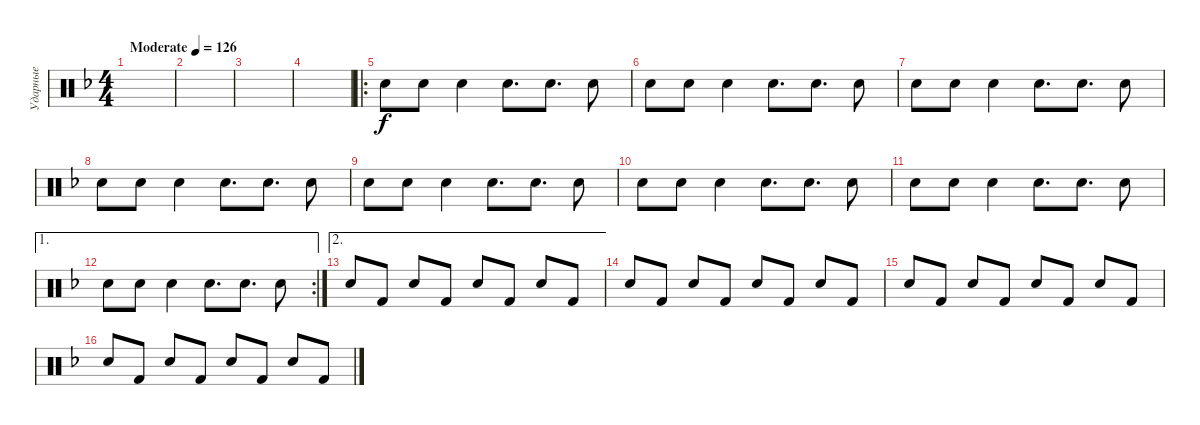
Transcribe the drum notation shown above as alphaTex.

\track ("Ударные" "Ударные") {instrument percussion}
\staff {score}
\articulation defaults
\ts (4 4)
\tempo (126 "Moderate")
\clef neutral
\ks dminor
|
|
|
|
\ro "Electric Snare (hit)".8 "Electric Snare (hit)".8 "Electric Snare (hit)".4 "Electric Snare (hit)".8{d} "Electric Snare (hit)".8{d} "Electric Snare (hit)".8
|
"Electric Snare (hit)".8 "Electric Snare (hit)".8 "Electric Snare (hit)".4 "Electric Snare (hit)".8{d} "Electric Snare (hit)".8{d} "Electric Snare (hit)".8 |
"Electric Snare (hit)".8 "Electric Snare (hit)".8 "Electric Snare (hit)".4 "Electric Snare (hit)".8{d} "Electric Snare (hit)".8{d} "Electric Snare (hit)".8 |
"Electric Snare (hit)".8 "Electric Snare (hit)".8 "Electric Snare (hit)".4 "Electric Snare (hit)".8{d} "Electric Snare (hit)".8{d} "Electric Snare (hit)".8 |
"Electric Snare (hit)".8 "Electric Snare (hit)".8 "Electric Snare (hit)".4 "Electric Snare (hit)".8{d} "Electric Snare (hit)".8{d} "Electric Snare (hit)".8 |
"Electric Snare (hit)".8 "Electric Snare (hit)".8 "Electric Snare (hit)".4 "Electric Snare (hit)".8{d} "Electric Snare (hit)".8{d} "Electric Snare (hit)".8 |
"Electric Snare (hit)".8 "Electric Snare (hit)".8 "Electric Snare (hit)".4 "Electric Snare (hit)".8{d} "Electric Snare (hit)".8{d} "Electric Snare (hit)".8 |
\ae 1
\rc 2 "Electric Snare (hit)".8 "Electric Snare (hit)".8 "Electric Snare (hit)".4 "Electric Snare (hit)".8{d} "Electric Snare (hit)".8{d} "Electric Snare (hit)".8
|
\ae 2 "Electric Snare (hit)".8 "Kick (hit) 2".8 "Electric Snare (hit)".8 "Kick (hit) 2".8 "Electric Snare (hit)".8 "Kick (hit) 2".8 "Electric Snare (hit)".8 "Kick (hit) 2".8
|
"Electric Snare (hit)".8 "Kick (hit) 2".8 "Electric Snare (hit)".8 "Kick (hit) 2".8 "Electric Snare (hit)".8 "Kick (hit) 2".8 "Electric Snare (hit)".8 "Kick (hit) 2".8 |
"Electric Snare (hit)".8 "Kick (hit) 2".8 "Electric Snare (hit)".8 "Kick (hit) 2".8 "Electric Snare (hit)".8 "Kick (hit) 2".8 "Electric Snare (hit)".8 "Kick (hit) 2".8 |
"Electric Snare (hit)".8 "Kick (hit) 2".8 "Electric Snare (hit)".8 "Kick (hit) 2".8 "Electric Snare (hit)".8 "Kick (hit) 2".8 "Electric Snare (hit)".8 "Kick (hit) 2".8
